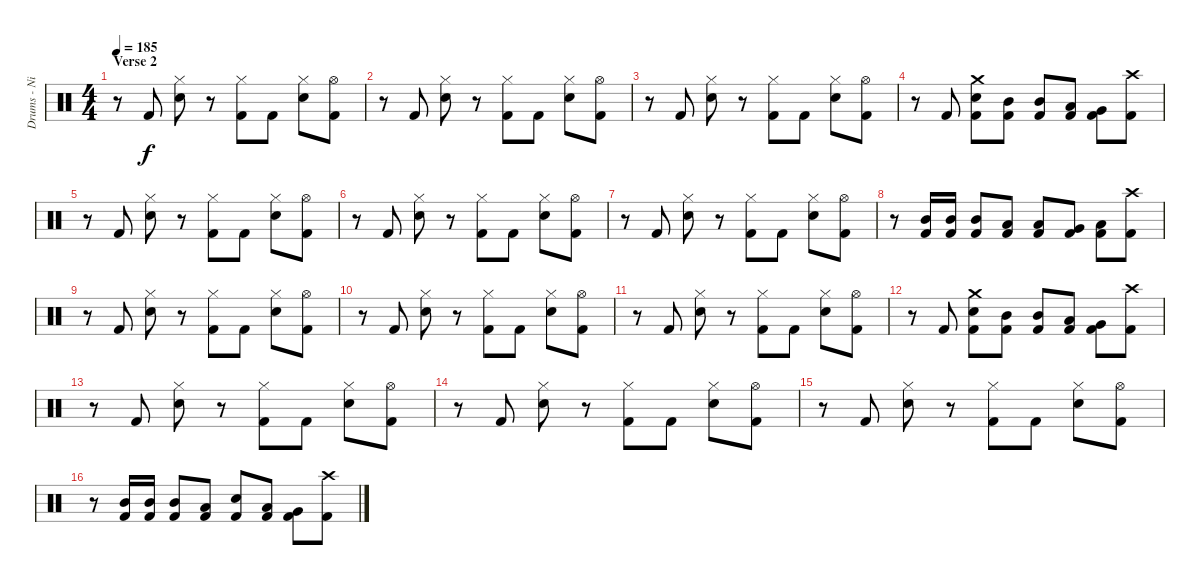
\track ("Drums - Nicko" "Drums - Ni") {instrument percussion}
\staff {score}
\articulation defaults
\ts (4 4)
\section ("" "Verse 2")
\tempo 185
\clef neutral
\ks c
r.8{dy f} "Kick (hit) 2".8 ("Hi-Hat (closed)" "Snare (hit) 2").8 r.8 ("Hi-Hat (closed)" "Kick (hit) 2").8 "Kick (hit) 2".8 ("Hi-Hat (closed)" "Snare (hit) 2").8 ("Hi-Hat (open)" "Kick (hit) 2").8 |
r.8 "Kick (hit) 2".8 ("Hi-Hat (closed)" "Snare (hit) 2").8 r.8 ("Hi-Hat (closed)" "Kick (hit) 2").8 "Kick (hit) 2".8 ("Hi-Hat (closed)" "Snare (hit) 2").8 ("Hi-Hat (open)" "Kick (hit) 2").8 |
r.8 "Kick (hit) 2".8 ("Hi-Hat (closed)" "Snare (hit) 2").8 r.8 ("Hi-Hat (closed)" "Kick (hit) 2").8 "Kick (hit) 2".8 ("Hi-Hat (closed)" "Snare (hit) 2").8 ("Hi-Hat (open)" "Kick (hit) 2").8 |
r.8 "Kick (hit) 2".8 ("Crash medium (hit)" "Snare (hit) 2" "Kick (hit) 2").8 ("Mid Tom (hit)" "Kick (hit) 2").8 ("Mid Tom (hit)" "Kick (hit) 2").8 ("Low Tom (hit)" "Kick (hit) 2").8 ("Very Low Tom (hit)" "Kick (hit) 2").8 ("Crash high (hit)" "Kick (hit) 2").8 |
r.8 "Kick (hit) 2".8 ("Hi-Hat (closed)" "Snare (hit) 2").8 r.8 ("Hi-Hat (closed)" "Kick (hit) 2").8 "Kick (hit) 2".8 ("Hi-Hat (closed)" "Snare (hit) 2").8 ("Hi-Hat (open)" "Kick (hit) 2").8 |
r.8 "Kick (hit) 2".8 ("Hi-Hat (closed)" "Snare (hit) 2").8 r.8 ("Hi-Hat (closed)" "Kick (hit) 2").8 "Kick (hit) 2".8 ("Hi-Hat (closed)" "Snare (hit) 2").8 ("Hi-Hat (open)" "Kick (hit) 2").8 |
r.8 "Kick (hit) 2".8 ("Hi-Hat (closed)" "Snare (hit) 2").8 r.8 ("Hi-Hat (closed)" "Kick (hit) 2").8 "Kick (hit) 2".8 ("Hi-Hat (closed)" "Snare (hit) 2").8 ("Hi-Hat (open)" "Kick (hit) 2").8 |
r.8 ("Mid Tom (hit)" "Kick (hit) 2").16 ("Mid Tom (hit)" "Kick (hit) 2").16 ("Mid Tom (hit)" "Kick (hit) 2").8 ("Low Tom (hit)" "Kick (hit) 2").8 ("Low Tom (hit)" "Kick (hit) 2").8 ("Very Low Tom (hit)" "Kick (hit) 2").8 ("Low Floor Tom (hit)" "Kick (hit) 2").8 ("Crash high (hit)" "Kick (hit) 2").8 |
\section ("" "")
r.8 "Kick (hit) 2".8 ("Hi-Hat (closed)" "Snare (hit) 2").8 r.8 ("Hi-Hat (closed)" "Kick (hit) 2").8 "Kick (hit) 2".8 ("Hi-Hat (closed)" "Snare (hit) 2").8 ("Hi-Hat (open)" "Kick (hit) 2").8 |
r.8 "Kick (hit) 2".8 ("Hi-Hat (closed)" "Snare (hit) 2").8 r.8 ("Hi-Hat (closed)" "Kick (hit) 2").8 "Kick (hit) 2".8 ("Hi-Hat (closed)" "Snare (hit) 2").8 ("Hi-Hat (open)" "Kick (hit) 2").8 |
r.8 "Kick (hit) 2".8 ("Hi-Hat (closed)" "Snare (hit) 2").8 r.8 ("Hi-Hat (closed)" "Kick (hit) 2").8 "Kick (hit) 2".8 ("Hi-Hat (closed)" "Snare (hit) 2").8 ("Hi-Hat (open)" "Kick (hit) 2").8 |
r.8 "Kick (hit) 2".8 ("Crash medium (hit)" "Snare (hit) 2" "Kick (hit) 2").8 ("Mid Tom (hit)" "Kick (hit) 2").8 ("Mid Tom (hit)" "Kick (hit) 2").8 ("Low Tom (hit)" "Kick (hit) 2").8 ("Very Low Tom (hit)" "Kick (hit) 2").8 ("Crash high (hit)" "Kick (hit) 2").8 |
r.8 "Kick (hit) 2".8 ("Hi-Hat (closed)" "Snare (hit) 2").8 r.8 ("Hi-Hat (closed)" "Kick (hit) 2").8 "Kick (hit) 2".8 ("Hi-Hat (closed)" "Snare (hit) 2").8 ("Hi-Hat (open)" "Kick (hit) 2").8 |
r.8 "Kick (hit) 2".8 ("Hi-Hat (closed)" "Snare (hit) 2").8 r.8 ("Hi-Hat (closed)" "Kick (hit) 2").8 "Kick (hit) 2".8 ("Hi-Hat (closed)" "Snare (hit) 2").8 ("Hi-Hat (open)" "Kick (hit) 2").8 |
r.8 "Kick (hit) 2".8 ("Hi-Hat (closed)" "Snare (hit) 2").8 r.8 ("Hi-Hat (closed)" "Kick (hit) 2").8 "Kick (hit) 2".8 ("Hi-Hat (closed)" "Snare (hit) 2").8 ("Hi-Hat (open)" "Kick (hit) 2").8 |
r.8 ("Mid Tom (hit)" "Kick (hit) 2").16 ("Mid Tom (hit)" "Kick (hit) 2").16 ("Mid Tom (hit)" "Kick (hit) 2").8 ("Low Tom (hit)" "Kick (hit) 2").8 ("Snare (hit) 2" "Kick (hit) 2").8 ("Low Tom (hit)" "Kick (hit) 2").8 ("Very Low Tom (hit)" "Kick (hit) 2").8 ("Crash high (hit)" "Kick (hit) 2").8
